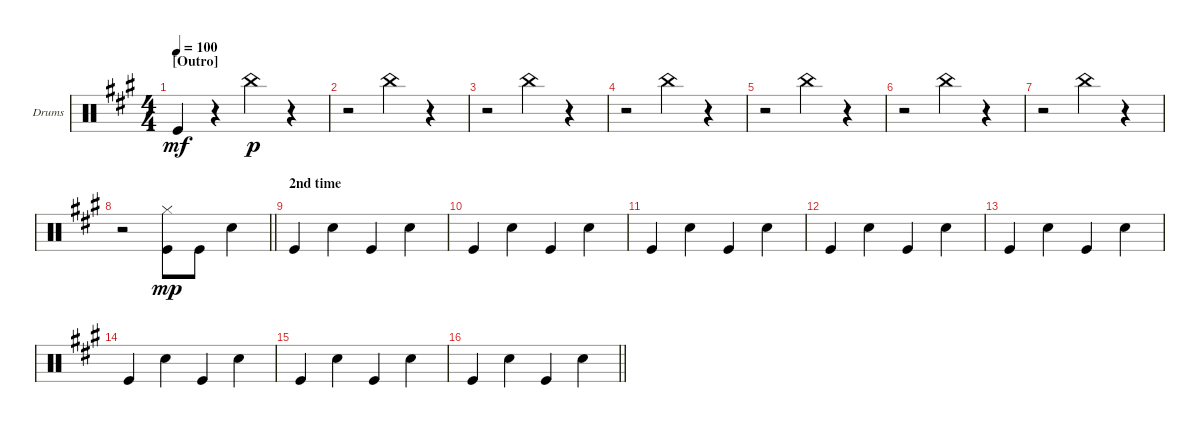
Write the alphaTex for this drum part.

\bracketExtendMode groupsimilarinstruments
\firstSystemTrackNameOrientation horizontal
\otherSystemsTrackNameOrientation horizontal
\track ("Drumkit" "Drums") {instrument percussion}
\staff {score}
\articulation defaults
\ts (4 4)
\section ("" "[Outro]")
\tempo 100
\clef neutral
\scale
0.333333
\ks f#minor "Kick (hit)".4{dy mf}
r.4 "China (hit)".4{dy p} r.4 |
\scale
0.333333 r.2 "China (hit)".4 r.4 |
\scale
0.333333 r.2 "China (hit)".4 r.4 |
\scale
0.333333 r.2 "China (hit)".4 r.4 |
\scale
0.333333 r.2 "China (hit)".4 r.4 |
\scale
0.333333 r.2 "China (hit)".4 r.4 |
\scale
0.333333 r.2 "China (hit)".4 r.4 |
\scale
0.333333
\barLineRight lightlight
r.2 ("Kick (hit)" "Hi-Hat (closed)").8{dy mp} "Kick (hit)".8 "Snare (hit) 2".4 |
\section ("" "2nd time")
\scale
0.333333 "Kick (hit)".4 "Snare (hit) 2".4 "Kick (hit)".4 "Snare (hit) 2".4 |
\scale
0.333333 "Kick (hit)".4 "Snare (hit) 2".4 "Kick (hit)".4 "Snare (hit) 2".4 |
\scale
0.333333 "Kick (hit)".4 "Snare (hit) 2".4 "Kick (hit)".4 "Snare (hit) 2".4 |
\scale
0.333333 "Kick (hit)".4 "Snare (hit) 2".4 "Kick (hit)".4 "Snare (hit) 2".4 |
\scale
0.333333 "Kick (hit)".4 "Snare (hit) 2".4 "Kick (hit)".4 "Snare (hit) 2".4 |
\scale
0.333333 "Kick (hit)".4 "Snare (hit) 2".4 "Kick (hit)".4 "Snare (hit) 2".4 |
\scale
0.333333 "Kick (hit)".4 "Snare (hit) 2".4 "Kick (hit)".4 "Snare (hit) 2".4 |
\scale
0.333333
\barLineRight lightlight "Kick (hit)".4 "Snare (hit) 2".4 "Kick (hit)".4 "Snare (hit) 2".4
